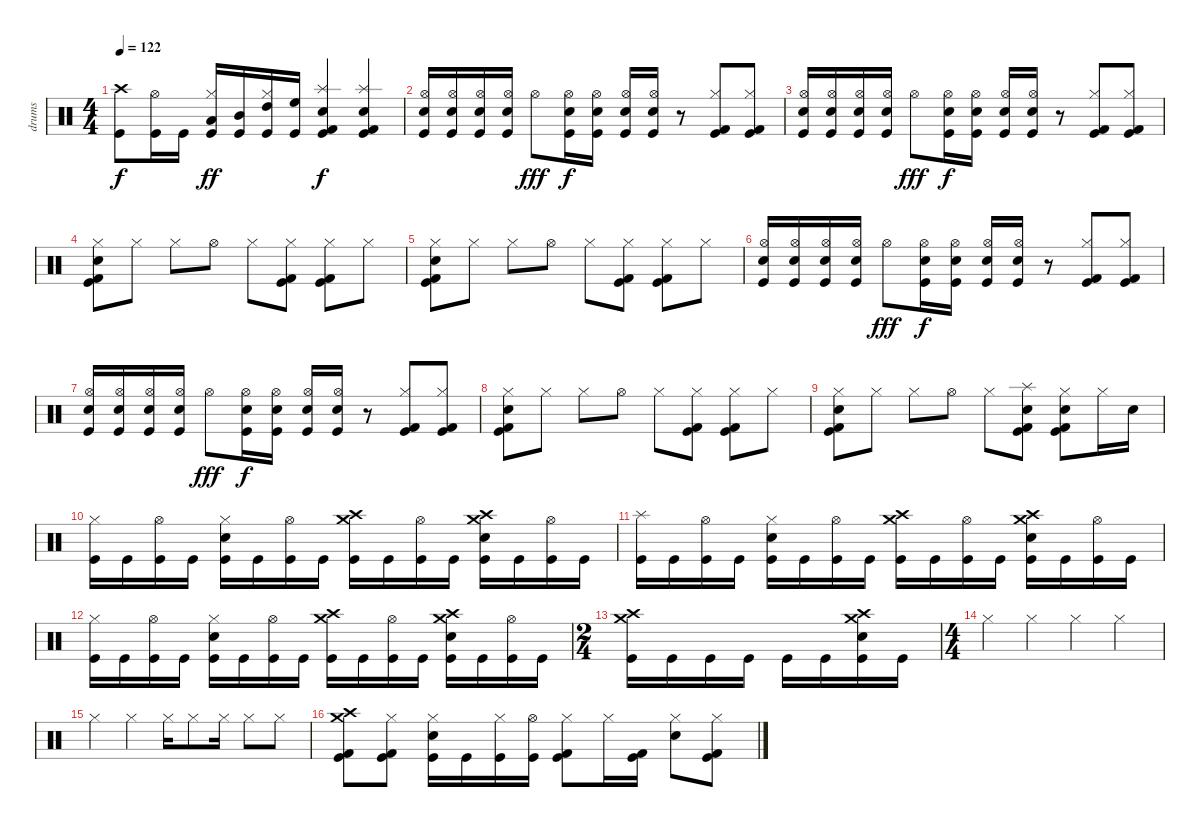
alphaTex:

\track ("drums" "drums") {instrument percussion}
\staff {score}
\articulation defaults
\ts (4 4)
\tempo 122
\clef neutral
\ks c
("Crash high (hit)" "Kick (hit)").8{dy f} ("Hi-Hat (open)" "Kick (hit)").16 "Kick (hit)".16 ("Hi-Hat (closed)" "Low Tom (hit)" "Kick (hit)").16{dy ff} ("Mid Tom (hit)" "Kick (hit)").16 ("Hi-Hat (closed)" "High Tom (hit)" "Kick (hit)").16 ("High Floor Tom (hit)" "Kick (hit)").16 ("Splash (hit)" "Electric Snare (hit)" "Kick (hit) 2" "Kick (hit)").4{dy f} ("Splash (hit)" "Electric Snare (hit)" "Kick (hit) 2" "Kick (hit)").4 |
("Hi-Hat (open)" "Electric Snare (hit)" "Kick (hit)").16 ("Hi-Hat (open)" "Electric Snare (hit)" "Kick (hit)").16 ("Hi-Hat (open)" "Electric Snare (hit)" "Kick (hit)").16 ("Hi-Hat (open)" "Electric Snare (hit)" "Kick (hit)").16 "Hi-Hat (open)".8{dy fff} ("Hi-Hat (open)" "Electric Snare (hit)" "Kick (hit)").16{dy f} ("Hi-Hat (open)" "Electric Snare (hit)" "Kick (hit)").16 ("Hi-Hat (open)" "Electric Snare (hit)" "Kick (hit)").16 ("Hi-Hat (open)" "Electric Snare (hit)" "Kick (hit)").16 r.8 ("Hi-Hat (closed)" "Kick (hit) 2" "Kick (hit)").8 ("Hi-Hat (closed)" "Kick (hit)" "Kick (hit) 2").8 |
("Hi-Hat (open)" "Electric Snare (hit)" "Kick (hit)").16 ("Hi-Hat (open)" "Electric Snare (hit)" "Kick (hit)").16 ("Hi-Hat (open)" "Electric Snare (hit)" "Kick (hit)").16 ("Hi-Hat (open)" "Electric Snare (hit)" "Kick (hit)").16 "Hi-Hat (open)".8{dy fff} ("Hi-Hat (open)" "Electric Snare (hit)" "Kick (hit)").16{dy f} ("Hi-Hat (open)" "Electric Snare (hit)" "Kick (hit)").16 ("Hi-Hat (open)" "Electric Snare (hit)" "Kick (hit)").16 ("Hi-Hat (open)" "Electric Snare (hit)" "Kick (hit)").16 r.8 ("Hi-Hat (closed)" "Kick (hit) 2" "Kick (hit)").8 ("Hi-Hat (closed)" "Kick (hit)" "Kick (hit) 2").8 |
("Hi-Hat (closed)" "Electric Snare (hit)" "Kick (hit) 2" "Kick (hit)").8 "Hi-Hat (closed)".8 "Hi-Hat (closed)".8 "Hi-Hat (open)".8 "Hi-Hat (closed)".8 ("Hi-Hat (closed)" "Kick (hit) 2" "Kick (hit)").8 ("Hi-Hat (closed)" "Kick (hit)" "Kick (hit) 2").8 "Hi-Hat (closed)".8 |
("Hi-Hat (closed)" "Electric Snare (hit)" "Kick (hit) 2" "Kick (hit)").8 "Hi-Hat (closed)".8 "Hi-Hat (closed)".8 "Hi-Hat (open)".8 "Hi-Hat (closed)".8 ("Hi-Hat (closed)" "Kick (hit) 2" "Kick (hit)").8 ("Hi-Hat (closed)" "Kick (hit)" "Kick (hit) 2").8 "Hi-Hat (closed)".8 |
("Hi-Hat (open)" "Electric Snare (hit)" "Kick (hit)").16 ("Hi-Hat (open)" "Electric Snare (hit)" "Kick (hit)").16 ("Hi-Hat (open)" "Electric Snare (hit)" "Kick (hit)").16 ("Hi-Hat (open)" "Electric Snare (hit)" "Kick (hit)").16 "Hi-Hat (open)".8{dy fff} ("Hi-Hat (open)" "Electric Snare (hit)" "Kick (hit)").16{dy f} ("Hi-Hat (open)" "Electric Snare (hit)" "Kick (hit)").16 ("Hi-Hat (open)" "Electric Snare (hit)" "Kick (hit)").16 ("Hi-Hat (open)" "Electric Snare (hit)" "Kick (hit)").16 r.8 ("Hi-Hat (closed)" "Kick (hit) 2" "Kick (hit)").8 ("Hi-Hat (closed)" "Kick (hit)" "Kick (hit) 2").8 |
("Hi-Hat (open)" "Electric Snare (hit)" "Kick (hit)").16 ("Hi-Hat (open)" "Electric Snare (hit)" "Kick (hit)").16 ("Hi-Hat (open)" "Electric Snare (hit)" "Kick (hit)").16 ("Hi-Hat (open)" "Electric Snare (hit)" "Kick (hit)").16 "Hi-Hat (open)".8{dy fff} ("Hi-Hat (open)" "Electric Snare (hit)" "Kick (hit)").16{dy f} ("Hi-Hat (open)" "Electric Snare (hit)" "Kick (hit)").16 ("Hi-Hat (open)" "Electric Snare (hit)" "Kick (hit)").16 ("Hi-Hat (open)" "Electric Snare (hit)" "Kick (hit)").16 r.8 ("Hi-Hat (closed)" "Kick (hit) 2" "Kick (hit)").8 ("Hi-Hat (closed)" "Kick (hit)" "Kick (hit) 2").8 |
("Hi-Hat (closed)" "Electric Snare (hit)" "Kick (hit) 2" "Kick (hit)").8 "Hi-Hat (closed)".8 "Hi-Hat (closed)".8 "Hi-Hat (open)".8 "Hi-Hat (closed)".8 ("Hi-Hat (closed)" "Kick (hit) 2" "Kick (hit)").8 ("Hi-Hat (closed)" "Kick (hit)" "Kick (hit) 2").8 "Hi-Hat (closed)".8 |
("Hi-Hat (closed)" "Electric Snare (hit)" "Kick (hit) 2" "Kick (hit)").8 "Hi-Hat (closed)".8 "Hi-Hat (closed)".8 "Hi-Hat (open)".8 "Hi-Hat (closed)".8 ("Splash (hit)" "Electric Snare (hit)" "Kick (hit) 2" "Kick (hit)").8 ("Hi-Hat (closed)" "Electric Snare (hit)" "Kick (hit)" "Kick (hit) 2").8 "Hi-Hat (closed)".16 "Electric Snare (hit)".16 |
("Hi-Hat (closed)" "Kick (hit)").16 "Kick (hit)".16 ("Hi-Hat (open)" "Kick (hit)").16 "Kick (hit)".16 ("Hi-Hat (closed)" "Electric Snare (hit)" "Kick (hit)").16 "Kick (hit)".16 ("Hi-Hat (open)" "Kick (hit)").16 "Kick (hit)".16 ("Crash medium (hit)" "Crash high (hit)" "Kick (hit)").16 "Kick (hit)".16 ("Hi-Hat (open)" "Kick (hit)").16 "Kick (hit)".16 ("Crash high (hit)" "Crash medium (hit)" "Electric Snare (hit)" "Kick (hit)").16 "Kick (hit)".16 ("Hi-Hat (open)" "Kick (hit)").16 "Kick (hit)".16 |
("Splash (hit)" "Kick (hit)").16 "Kick (hit)".16 ("Hi-Hat (open)" "Kick (hit)").16 "Kick (hit)".16 ("Hi-Hat (closed)" "Electric Snare (hit)" "Kick (hit)").16 "Kick (hit)".16 ("Hi-Hat (open)" "Kick (hit)").16 "Kick (hit)".16 ("Crash high (hit)" "Crash medium (hit)" "Kick (hit)").16 "Kick (hit)".16 ("Hi-Hat (open)" "Kick (hit)").16 "Kick (hit)".16 ("Crash high (hit)" "Crash medium (hit)" "Electric Snare (hit)" "Kick (hit)").16 "Kick (hit)".16 ("Hi-Hat (open)" "Kick (hit)").16 "Kick (hit)".16 |
("Hi-Hat (closed)" "Kick (hit)").16 "Kick (hit)".16 ("Hi-Hat (open)" "Kick (hit)").16 "Kick (hit)".16 ("Hi-Hat (closed)" "Electric Snare (hit)" "Kick (hit)").16 "Kick (hit)".16 ("Hi-Hat (open)" "Kick (hit)").16 "Kick (hit)".16 ("Crash medium (hit)" "Crash high (hit)" "Kick (hit)").16 "Kick (hit)".16 ("Hi-Hat (open)" "Kick (hit)").16 "Kick (hit)".16 ("Crash high (hit)" "Crash medium (hit)" "Electric Snare (hit)" "Kick (hit)").16 "Kick (hit)".16 ("Hi-Hat (open)" "Kick (hit)").16 "Kick (hit)".16 |
\ts (2 4)
("Crash medium (hit)" "Crash high (hit)" "Kick (hit)").16 "Kick (hit)".16 "Kick (hit)".16 "Kick (hit)".16 "Kick (hit)".16 "Kick (hit)".16 ("Crash medium (hit)" "Crash high (hit)" "Electric Snare (hit)" "Kick (hit)").16 "Kick (hit)".16 |
\ts (4 4)
"Hi-Hat (closed)".4 "Hi-Hat (closed)".4 "Hi-Hat (closed)".4 "Hi-Hat (closed)".4 |
"Hi-Hat (closed)".4 "Hi-Hat (closed)".4 "Hi-Hat (closed)".16 "Hi-Hat (closed)".8 "Hi-Hat (closed)".16 "Hi-Hat (closed)".8 "Hi-Hat (closed)".8 |
("Crash high (hit)" "Crash medium (hit)" "Kick (hit) 2" "Kick (hit)").8 ("Hi-Hat (closed)" "Kick (hit) 2" "Kick (hit)").8 ("Hi-Hat (closed)" "Electric Snare (hit)" "Kick (hit)").16 "Kick (hit)".16 ("Hi-Hat (closed)" "Kick (hit)").16 ("Hi-Hat (open)" "Kick (hit)").16 ("Hi-Hat (closed)" "Kick (hit) 2" "Kick (hit)").8 "Hi-Hat (closed)".16 ("Kick (hit) 2" "Kick (hit)").16 ("Hi-Hat (closed)" "Electric Snare (hit)").8 ("Hi-Hat (closed)" "Kick (hit) 2" "Kick (hit)").8
